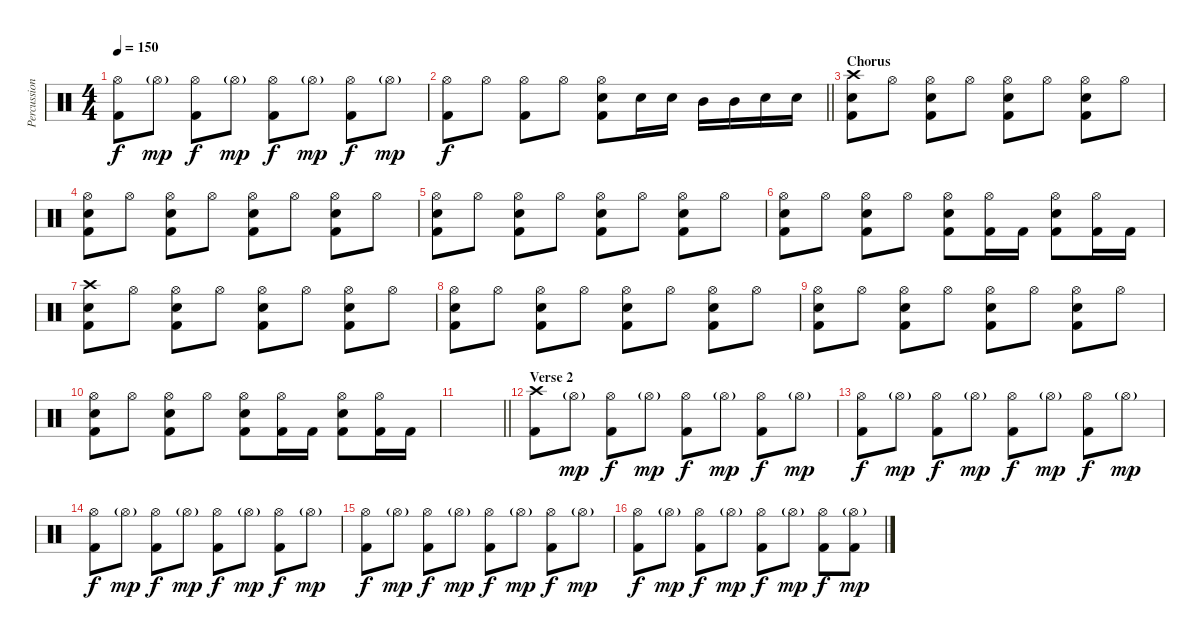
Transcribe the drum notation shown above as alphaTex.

\track ("Percussion" "Percussion") {instrument percussion}
\staff {score}
\articulation defaults
\ts (4 4)
\tempo 150
\clef neutral
\ks c
("Hi-Hat (open)" "Kick (hit) 2").8{dy f} "Hi-Hat (open)"{g}.8{dy mp} ("Hi-Hat (open)" "Kick (hit) 2").8{dy f} "Hi-Hat (open)"{g}.8{dy mp} ("Hi-Hat (open)" "Kick (hit) 2").8{dy f} "Hi-Hat (open)"{g}.8{dy mp} ("Hi-Hat (open)" "Kick (hit) 2").8{dy f} "Hi-Hat (open)"{g}.8{dy mp} |
\barLineRight lightlight
("Hi-Hat (open)" "Kick (hit) 2").8{dy f} "Hi-Hat (open)".8 ("Hi-Hat (open)" "Kick (hit) 2").8 "Hi-Hat (open)".8 ("Hi-Hat (open)" "Snare (hit) 2" "Kick (hit) 2").8 "Snare (hit) 2".16 "Snare (hit) 2".16 "Mid Tom (hit)".16 "Mid Tom (hit)".16 "Snare (hit) 2".16 "Snare (hit) 2".16 |
\section ("" "Chorus")
("Crash high (hit)" "Snare (hit) 2" "Kick (hit) 2").8 "Hi-Hat (open)".8 ("Hi-Hat (open)" "Snare (hit) 2" "Kick (hit) 2").8 "Hi-Hat (open)".8 ("Hi-Hat (open)" "Snare (hit) 2" "Kick (hit) 2").8 "Hi-Hat (open)".8 ("Hi-Hat (open)" "Snare (hit) 2" "Kick (hit) 2").8 "Hi-Hat (open)".8 |
("Hi-Hat (open)" "Snare (hit) 2" "Kick (hit) 2").8 "Hi-Hat (open)".8 ("Hi-Hat (open)" "Snare (hit) 2" "Kick (hit) 2").8 "Hi-Hat (open)".8 ("Hi-Hat (open)" "Snare (hit) 2" "Kick (hit) 2").8 "Hi-Hat (open)".8 ("Hi-Hat (open)" "Snare (hit) 2" "Kick (hit) 2").8 "Hi-Hat (open)".8 |
("Hi-Hat (open)" "Snare (hit) 2" "Kick (hit) 2").8 "Hi-Hat (open)".8 ("Hi-Hat (open)" "Snare (hit) 2" "Kick (hit) 2").8 "Hi-Hat (open)".8 ("Hi-Hat (open)" "Snare (hit) 2" "Kick (hit) 2").8 "Hi-Hat (open)".8 ("Hi-Hat (open)" "Snare (hit) 2" "Kick (hit) 2").8 "Hi-Hat (open)".8 |
("Hi-Hat (open)" "Snare (hit) 2" "Kick (hit) 2").8 "Hi-Hat (open)".8 ("Hi-Hat (open)" "Snare (hit) 2" "Kick (hit) 2").8 "Hi-Hat (open)".8 ("Hi-Hat (open)" "Snare (hit) 2" "Kick (hit) 2").8 ("Hi-Hat (open)" "Kick (hit) 2").16 "Kick (hit) 2".16 ("Hi-Hat (open)" "Snare (hit) 2" "Kick (hit) 2").8 ("Hi-Hat (open)" "Kick (hit) 2").16 "Kick (hit) 2".16 |
("Crash high (hit)" "Snare (hit) 2" "Kick (hit) 2").8 "Hi-Hat (open)".8 ("Hi-Hat (open)" "Snare (hit) 2" "Kick (hit) 2").8 "Hi-Hat (open)".8 ("Hi-Hat (open)" "Snare (hit) 2" "Kick (hit) 2").8 "Hi-Hat (open)".8 ("Hi-Hat (open)" "Snare (hit) 2" "Kick (hit) 2").8 "Hi-Hat (open)".8 |
("Hi-Hat (open)" "Snare (hit) 2" "Kick (hit) 2").8 "Hi-Hat (open)".8 ("Hi-Hat (open)" "Snare (hit) 2" "Kick (hit) 2").8 "Hi-Hat (open)".8 ("Hi-Hat (open)" "Snare (hit) 2" "Kick (hit) 2").8 "Hi-Hat (open)".8 ("Hi-Hat (open)" "Snare (hit) 2" "Kick (hit) 2").8 "Hi-Hat (open)".8 |
("Hi-Hat (open)" "Snare (hit) 2" "Kick (hit) 2").8 "Hi-Hat (open)".8 ("Hi-Hat (open)" "Snare (hit) 2" "Kick (hit) 2").8 "Hi-Hat (open)".8 ("Hi-Hat (open)" "Snare (hit) 2" "Kick (hit) 2").8 "Hi-Hat (open)".8 ("Hi-Hat (open)" "Snare (hit) 2" "Kick (hit) 2").8 "Hi-Hat (open)".8 |
("Hi-Hat (open)" "Snare (hit) 2" "Kick (hit) 2").8 "Hi-Hat (open)".8 ("Hi-Hat (open)" "Snare (hit) 2" "Kick (hit) 2").8 "Hi-Hat (open)".8 ("Hi-Hat (open)" "Snare (hit) 2" "Kick (hit) 2").8 ("Hi-Hat (open)" "Kick (hit) 2").16 "Kick (hit) 2".16 ("Hi-Hat (open)" "Snare (hit) 2" "Kick (hit) 2").8 ("Hi-Hat (open)" "Kick (hit) 2").16 "Kick (hit) 2".16 |
\barLineRight lightlight
|
\section ("" "Verse 2")
("Crash high (hit)" "Kick (hit) 2").8 "Hi-Hat (open)"{g}.8{dy mp} ("Hi-Hat (open)" "Kick (hit) 2").8{dy f} "Hi-Hat (open)"{g}.8{dy mp} ("Hi-Hat (open)" "Kick (hit) 2").8{dy f} "Hi-Hat (open)"{g}.8{dy mp} ("Hi-Hat (open)" "Kick (hit) 2").8{dy f} "Hi-Hat (open)"{g}.8{dy mp} |
("Hi-Hat (open)" "Kick (hit) 2").8{dy f} "Hi-Hat (open)"{g}.8{dy mp} ("Hi-Hat (open)" "Kick (hit) 2").8{dy f} "Hi-Hat (open)"{g}.8{dy mp} ("Hi-Hat (open)" "Kick (hit) 2").8{dy f} "Hi-Hat (open)"{g}.8{dy mp} ("Hi-Hat (open)" "Kick (hit) 2").8{dy f} "Hi-Hat (open)"{g}.8{dy mp} |
("Hi-Hat (open)" "Kick (hit) 2").8{dy f} "Hi-Hat (open)"{g}.8{dy mp} ("Hi-Hat (open)" "Kick (hit) 2").8{dy f} "Hi-Hat (open)"{g}.8{dy mp} ("Hi-Hat (open)" "Kick (hit) 2").8{dy f} "Hi-Hat (open)"{g}.8{dy mp} ("Hi-Hat (open)" "Kick (hit) 2").8{dy f} "Hi-Hat (open)"{g}.8{dy mp} |
("Hi-Hat (open)" "Kick (hit) 2").8{dy f} "Hi-Hat (open)"{g}.8{dy mp} ("Hi-Hat (open)" "Kick (hit) 2").8{dy f} "Hi-Hat (open)"{g}.8{dy mp} ("Hi-Hat (open)" "Kick (hit) 2").8{dy f} "Hi-Hat (open)"{g}.8{dy mp} ("Hi-Hat (open)" "Kick (hit) 2").8{dy f} "Hi-Hat (open)"{g}.8{dy mp} |
("Hi-Hat (open)" "Kick (hit) 2").8{dy f} "Hi-Hat (open)"{g}.8{dy mp} ("Hi-Hat (open)" "Kick (hit) 2").8{dy f} "Hi-Hat (open)"{g}.8{dy mp} ("Hi-Hat (open)" "Kick (hit) 2").8{dy f} "Hi-Hat (open)"{g}.8{dy mp} ("Hi-Hat (open)" "Kick (hit) 2").8{dy f} ("Hi-Hat (open)"{g} "Kick (hit) 2").8{dy mp}
